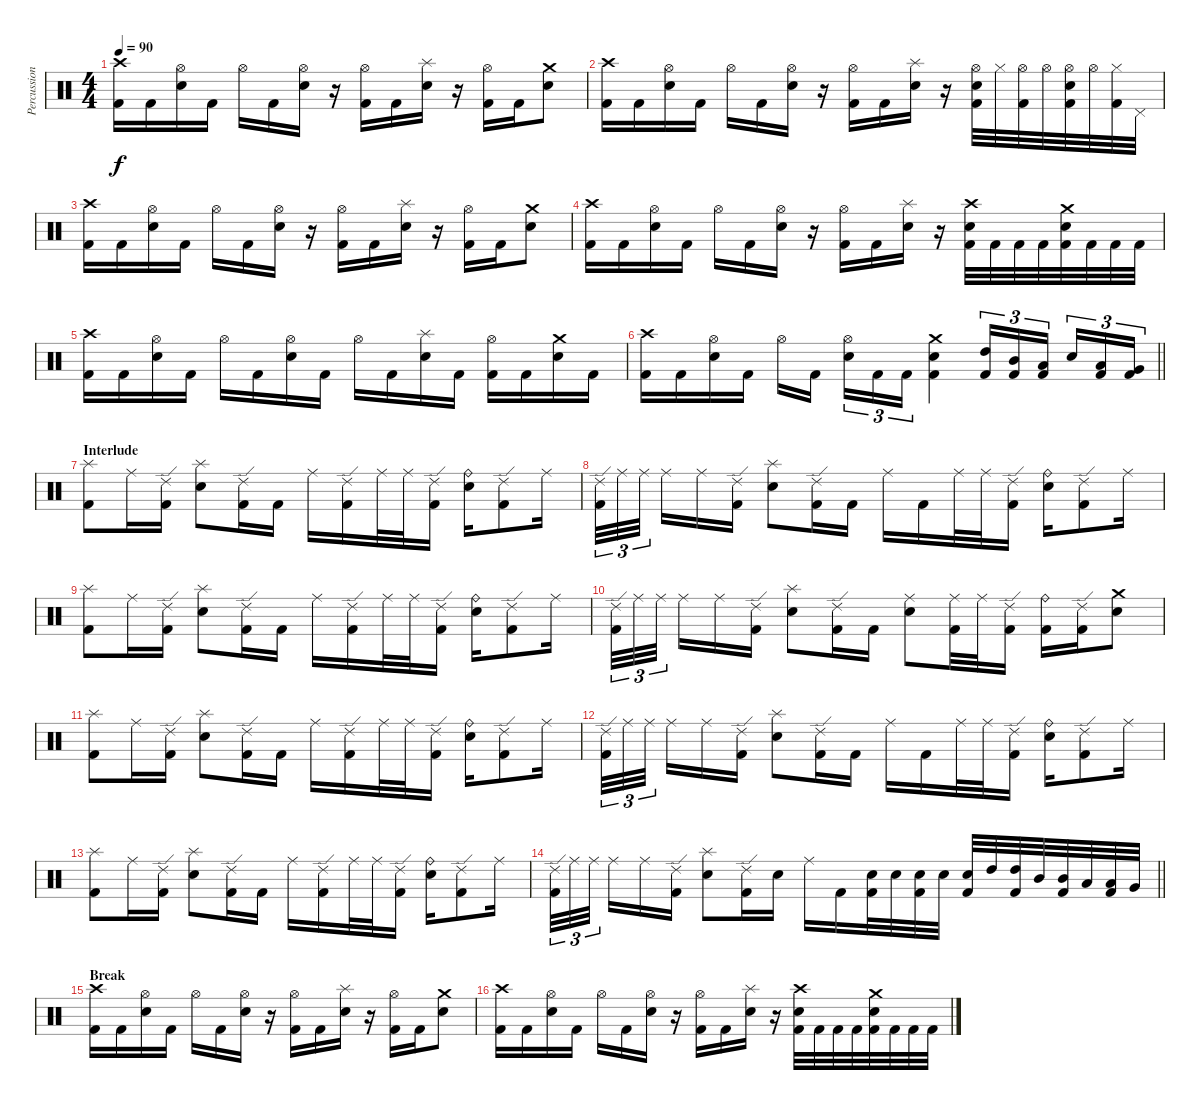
\track ("Percussion" "Percussion") {instrument percussion}
\staff {score}
\articulation defaults
\ts (4 4)
\tempo 90
\clef neutral
\ks c
("Crash high (hit)" "Kick (hit) 2").16{dy f} "Kick (hit) 2".16 ("Hi-Hat (open)" "Electric Snare (hit)").16 "Kick (hit) 2".16 "Hi-Hat (open)".16 "Kick (hit) 2".16 ("Hi-Hat (open)" "Electric Snare (hit)").16 r.16 ("Hi-Hat (open)" "Kick (hit) 2").16 "Kick (hit) 2".16 ("Splash (hit)" "Electric Snare (hit)").16 r.16 ("Hi-Hat (open)" "Kick (hit) 2").16 "Kick (hit) 2".16 ("Crash medium (hit)" "Electric Snare (hit)").8 |
("Crash high (hit)" "Kick (hit) 2").16 "Kick (hit) 2".16 ("Hi-Hat (open)" "Electric Snare (hit)").16 "Kick (hit) 2".16 "Hi-Hat (open)".16 "Kick (hit) 2".16 ("Hi-Hat (open)" "Electric Snare (hit)").16 r.16 ("Hi-Hat (open)" "Kick (hit) 2").16 "Kick (hit) 2".16 ("Splash (hit)" "Electric Snare (hit)").16 r.16 ("Hi-Hat (open)" "Electric Snare (hit)" "Kick (hit) 2").32 "Hi-Hat (closed)".32 ("Hi-Hat (open)" "Kick (hit) 2").32 "Hi-Hat (open)".32 ("Hi-Hat (open)" "Electric Snare (hit)" "Kick (hit) 2").32 "Hi-Hat (open)".32 ("Hi-Hat (closed)" "Kick (hit) 2").32 "Pedal Hi-Hat (hit)".32 |
("Crash high (hit)" "Kick (hit) 2").16 "Kick (hit) 2".16 ("Hi-Hat (open)" "Electric Snare (hit)").16 "Kick (hit) 2".16 "Hi-Hat (open)".16 "Kick (hit) 2".16 ("Hi-Hat (open)" "Electric Snare (hit)").16 r.16 ("Hi-Hat (open)" "Kick (hit) 2").16 "Kick (hit) 2".16 ("Splash (hit)" "Electric Snare (hit)").16 r.16 ("Hi-Hat (open)" "Kick (hit) 2").16 "Kick (hit) 2".16 ("Crash medium (hit)" "Electric Snare (hit)").8 |
("Crash high (hit)" "Kick (hit) 2").16 "Kick (hit) 2".16 ("Hi-Hat (open)" "Electric Snare (hit)").16 "Kick (hit) 2".16 "Hi-Hat (open)".16 "Kick (hit) 2".16 ("Hi-Hat (open)" "Electric Snare (hit)").16 r.16 ("Hi-Hat (open)" "Kick (hit) 2").16 "Kick (hit) 2".16 ("Splash (hit)" "Electric Snare (hit)").16 r.16 ("Crash high (hit)" "Electric Snare (hit)" "Kick (hit) 2").32 "Kick (hit) 2".32 "Kick (hit) 2".32 "Kick (hit) 2".32 ("Crash medium (hit)" "Electric Snare (hit)" "Kick (hit) 2").32 "Kick (hit) 2".32 "Kick (hit) 2".32 "Kick (hit) 2".32 |
("Crash high (hit)" "Kick (hit) 2").16 "Kick (hit) 2".16 ("Hi-Hat (open)" "Electric Snare (hit)").16 "Kick (hit) 2".16 "Hi-Hat (open)".16 "Kick (hit) 2".16 ("Hi-Hat (open)" "Electric Snare (hit)").16 "Kick (hit) 2".16 "Hi-Hat (open)".16 "Kick (hit) 2".16 ("Splash (hit)" "Electric Snare (hit)").16 "Kick (hit) 2".16 ("Hi-Hat (open)" "Kick (hit) 2").16 "Kick (hit) 2".16 ("Crash medium (hit)" "Electric Snare (hit)").16 "Kick (hit) 2".16 |
\barLineRight lightlight
("Crash high (hit)" "Kick (hit) 2").16 "Kick (hit) 2".16 ("Hi-Hat (open)" "Electric Snare (hit)").16 "Kick (hit) 2".16 "Hi-Hat (open)".16 "Kick (hit) 2".16 ("Hi-Hat (open)" "Electric Snare (hit)").16{tu (3 2)} "Kick (hit) 2".16{tu (3 2)} "Kick (hit) 2".16{tu (3 2)} ("Crash medium (hit)" "Electric Snare (hit)" "Kick (hit) 2").4 ("High Tom (hit)" "Kick (hit) 2").16{tu (3 2)} ("Mid Tom (hit)" "Kick (hit) 2").16{tu (3 2)} ("Low Tom (hit)" "Kick (hit) 2").16{tu (3 2)} "Electric Snare (hit)".16{tu (3 2)} ("Low Tom (hit)" "Kick (hit) 2").16{tu (3 2)} ("Very Low Tom (hit)" "Kick (hit) 2").16{tu (3 2)} |
\section ("" "Interlude")
("Splash (hit)" "Kick (hit) 2").8 "Ride (middle)".16 ("Ride (edge) 2" "Kick (hit) 2").16 ("Splash (hit)" "Electric Snare (hit)").8 ("Ride (edge) 2" "Kick (hit) 2").16 "Kick (hit) 2".16 "Ride (middle)".16 ("Ride (edge) 2" "Kick (hit) 2").16 "Ride (middle)".32 "Ride (middle)".32 ("Ride (edge) 2" "Kick (hit) 2").16 ("Ride (bell)" "Electric Snare (hit)").16 ("Ride (edge) 2" "Kick (hit) 2").8 "Ride (middle)".16 |
("Ride (edge) 2" "Kick (hit) 2").32{tu (3 2)} "Ride (middle)".32{tu (3 2)} "Ride (middle)".32{tu (3 2)} "Ride (middle)".16 "Ride (middle)".16 ("Ride (edge) 2" "Kick (hit) 2").16 ("Splash (hit)" "Electric Snare (hit)").8 ("Ride (edge) 2" "Kick (hit) 2").16 "Kick (hit) 2".16 "Ride (middle)".16 "Kick (hit) 2".16 "Ride (middle)".32 "Ride (middle)".32 ("Ride (edge) 2" "Kick (hit) 2").16 ("Ride (bell)" "Electric Snare (hit)").16 ("Ride (edge) 2" "Kick (hit) 2").8 "Ride (middle)".16 |
("Splash (hit)" "Kick (hit) 2").8 "Ride (middle)".16 ("Ride (edge) 2" "Kick (hit) 2").16 ("Splash (hit)" "Electric Snare (hit)").8 ("Ride (edge) 2" "Kick (hit) 2").16 "Kick (hit) 2".16 "Ride (middle)".16 ("Ride (edge) 2" "Kick (hit) 2").16 "Ride (middle)".32 "Ride (middle)".32 ("Ride (edge) 2" "Kick (hit) 2").16 ("Ride (bell)" "Electric Snare (hit)").16 ("Ride (edge) 2" "Kick (hit) 2").8 "Ride (middle)".16 |
("Ride (edge) 2" "Kick (hit) 2").32{tu (3 2)} "Ride (middle)".32{tu (3 2)} "Ride (middle)".32{tu (3 2)} "Ride (middle)".16 "Ride (middle)".16 ("Ride (edge) 2" "Kick (hit) 2").16 ("Splash (hit)" "Electric Snare (hit)").8 ("Ride (edge) 2" "Kick (hit) 2").16 "Kick (hit) 2".16 ("Ride (middle)" "Electric Snare (hit)").8 ("Ride (middle)" "Kick (hit) 2").32 "Ride (middle)".32 ("Ride (edge) 2" "Kick (hit) 2").16 ("Ride (bell)" "Kick (hit) 2").16 ("Ride (edge) 2" "Kick (hit) 2").16 ("Crash medium (hit)" "Electric Snare (hit)").8 |
("Splash (hit)" "Kick (hit) 2").8 "Ride (middle)".16 ("Ride (edge) 2" "Kick (hit) 2").16 ("Splash (hit)" "Electric Snare (hit)").8 ("Ride (edge) 2" "Kick (hit) 2").16 "Kick (hit) 2".16 "Ride (middle)".16 ("Ride (edge) 2" "Kick (hit) 2").16 "Ride (middle)".32 "Ride (middle)".32 ("Ride (edge) 2" "Kick (hit) 2").16 ("Ride (bell)" "Electric Snare (hit)").16 ("Ride (edge) 2" "Kick (hit) 2").8 "Ride (middle)".16 |
("Ride (edge) 2" "Kick (hit) 2").32{tu (3 2)} "Ride (middle)".32{tu (3 2)} "Ride (middle)".32{tu (3 2)} "Ride (middle)".16 "Ride (middle)".16 ("Ride (edge) 2" "Kick (hit) 2").16 ("Splash (hit)" "Electric Snare (hit)").8 ("Ride (edge) 2" "Kick (hit) 2").16 "Kick (hit) 2".16 "Ride (middle)".16 "Kick (hit) 2".16 "Ride (middle)".32 "Ride (middle)".32 ("Ride (edge) 2" "Kick (hit) 2").16 ("Ride (bell)" "Electric Snare (hit)").16 ("Ride (edge) 2" "Kick (hit) 2").8 "Ride (middle)".16 |
("Splash (hit)" "Kick (hit) 2").8 "Ride (middle)".16 ("Ride (edge) 2" "Kick (hit) 2").16 ("Splash (hit)" "Electric Snare (hit)").8 ("Ride (edge) 2" "Kick (hit) 2").16 "Kick (hit) 2".16 "Ride (middle)".16 ("Ride (edge) 2" "Kick (hit) 2").16 "Ride (middle)".32 "Ride (middle)".32 ("Ride (edge) 2" "Kick (hit) 2").16 ("Ride (bell)" "Electric Snare (hit)").16 ("Ride (edge) 2" "Kick (hit) 2").8 "Ride (middle)".16 |
\barLineRight lightlight
("Ride (edge) 2" "Kick (hit) 2").32{tu (3 2)} "Ride (middle)".32{tu (3 2)} "Ride (middle)".32{tu (3 2)} "Ride (middle)".16 "Ride (middle)".16 ("Ride (edge) 2" "Kick (hit) 2").16 ("Splash (hit)" "Electric Snare (hit)").8 ("Ride (edge) 2" "Kick (hit) 2").16 "Electric Snare (hit)".16 "Ride (middle)".16 "Kick (hit) 2".16 ("Electric Snare (hit)" "Kick (hit) 2").32 "Electric Snare (hit)".32 ("Electric Snare (hit)" "Kick (hit) 2").32 "Electric Snare (hit)".32 ("Electric Snare (hit)" "Kick (hit) 2").32 "High Tom (hit)".32 ("High Tom (hit)" "Kick (hit) 2").32 "Mid Tom (hit)".32 ("Mid Tom (hit)" "Kick (hit) 2").32 "Low Tom (hit)".32 ("Low Tom (hit)" "Kick (hit) 2").32 "Very Low Tom (hit)".32 |
\section ("" "Break")
("Crash high (hit)" "Kick (hit) 2").16 "Kick (hit) 2".16 ("Hi-Hat (open)" "Electric Snare (hit)").16 "Kick (hit) 2".16 "Hi-Hat (open)".16 "Kick (hit) 2".16 ("Hi-Hat (open)" "Electric Snare (hit)").16 r.16 ("Hi-Hat (open)" "Kick (hit) 2").16 "Kick (hit) 2".16 ("Splash (hit)" "Electric Snare (hit)").16 r.16 ("Hi-Hat (open)" "Kick (hit) 2").16 "Kick (hit) 2".16 ("Crash medium (hit)" "Electric Snare (hit)").8 |
("Crash high (hit)" "Kick (hit) 2").16 "Kick (hit) 2".16 ("Hi-Hat (open)" "Electric Snare (hit)").16 "Kick (hit) 2".16 "Hi-Hat (open)".16 "Kick (hit) 2".16 ("Hi-Hat (open)" "Electric Snare (hit)").16 r.16 ("Hi-Hat (open)" "Kick (hit) 2").16 "Kick (hit) 2".16 ("Splash (hit)" "Electric Snare (hit)").16 r.16 ("Crash high (hit)" "Electric Snare (hit)" "Kick (hit) 2").32 "Kick (hit) 2".32 "Kick (hit) 2".32 "Kick (hit) 2".32 ("Crash medium (hit)" "Electric Snare (hit)" "Kick (hit) 2").32 "Kick (hit) 2".32 "Kick (hit) 2".32 "Kick (hit) 2".32
